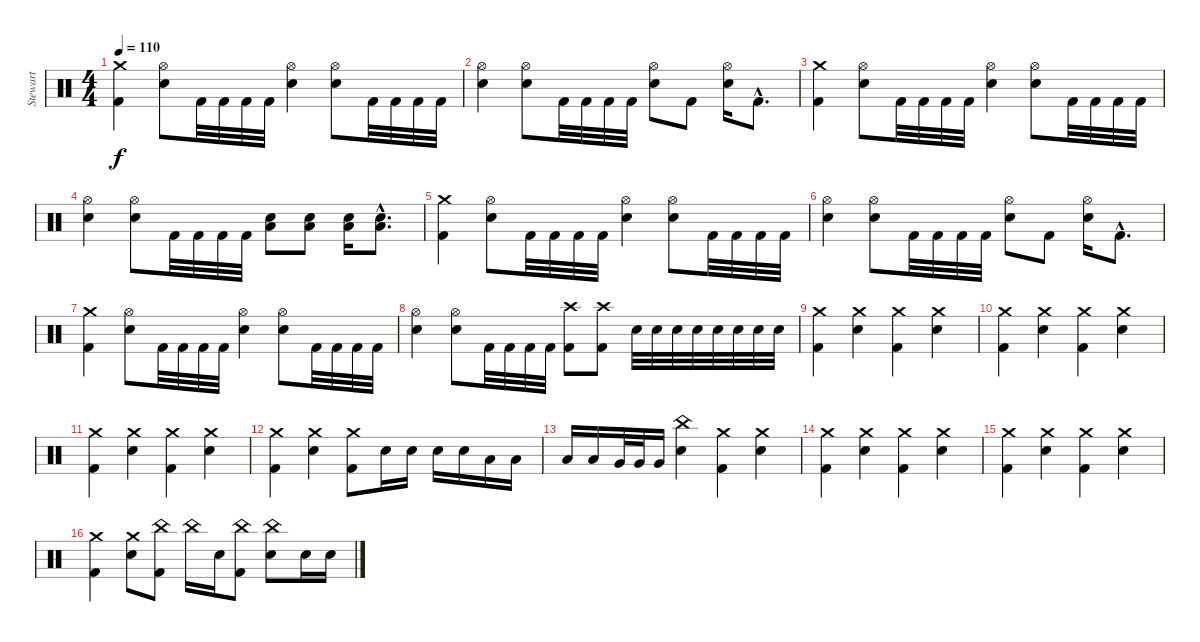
\track ("Stewart" "Stewart") {instrument percussion}
\staff {score}
\articulation defaults
\ts (4 4)
\tempo 110
\clef neutral
\ks c
("Crash medium (hit)" "Kick (hit) 2").4{dy f} ("Hi-Hat (open)" "Electric Snare (hit)").8 "Kick (hit) 2".32 "Kick (hit) 2".32 "Kick (hit) 2".32 "Kick (hit) 2".32 ("Hi-Hat (open)" "Electric Snare (hit)").4 ("Hi-Hat (open)" "Electric Snare (hit)").8 "Kick (hit) 2".32 "Kick (hit) 2".32 "Kick (hit) 2".32 "Kick (hit) 2".32 |
("Hi-Hat (open)" "Electric Snare (hit)").4 ("Hi-Hat (open)" "Electric Snare (hit)").8 "Kick (hit) 2".32 "Kick (hit) 2".32 "Kick (hit) 2".32 "Kick (hit) 2".32 ("Hi-Hat (open)" "Electric Snare (hit)").8 "Kick (hit) 2".8 ("Hi-Hat (open)" "Electric Snare (hit)").16 "Kick (hit) 2"{hac}.8{d} |
("Crash medium (hit)" "Kick (hit) 2").4 ("Hi-Hat (open)" "Electric Snare (hit)").8 "Kick (hit) 2".32 "Kick (hit) 2".32 "Kick (hit) 2".32 "Kick (hit) 2".32 ("Hi-Hat (open)" "Electric Snare (hit)").4 ("Hi-Hat (open)" "Electric Snare (hit)").8 "Kick (hit) 2".32 "Kick (hit) 2".32 "Kick (hit) 2".32 "Kick (hit) 2".32 |
("Hi-Hat (open)" "Electric Snare (hit)").4 ("Hi-Hat (open)" "Electric Snare (hit)").8 "Kick (hit) 2".32 "Kick (hit) 2".32 "Kick (hit) 2".32 "Kick (hit) 2".32 ("Snare (hit) 2" "Low Tom (hit)").8 ("Snare (hit) 2" "Low Tom (hit)").8 ("Snare (hit) 2" "Low Tom (hit)").16 ("Snare (hit) 2"{hac} "Low Tom (hit)"{hac}).8{d} |
("Crash medium (hit)" "Kick (hit) 2").4 ("Hi-Hat (open)" "Electric Snare (hit)").8 "Kick (hit) 2".32 "Kick (hit) 2".32 "Kick (hit) 2".32 "Kick (hit) 2".32 ("Hi-Hat (open)" "Electric Snare (hit)").4 ("Hi-Hat (open)" "Electric Snare (hit)").8 "Kick (hit) 2".32 "Kick (hit) 2".32 "Kick (hit) 2".32 "Kick (hit) 2".32 |
("Hi-Hat (open)" "Electric Snare (hit)").4 ("Hi-Hat (open)" "Electric Snare (hit)").8 "Kick (hit) 2".32 "Kick (hit) 2".32 "Kick (hit) 2".32 "Kick (hit) 2".32 ("Hi-Hat (open)" "Electric Snare (hit)").8 "Kick (hit) 2".8 ("Hi-Hat (open)" "Electric Snare (hit)").16 "Kick (hit) 2"{hac}.8{d} |
("Crash medium (hit)" "Kick (hit) 2").4 ("Hi-Hat (open)" "Electric Snare (hit)").8 "Kick (hit) 2".32 "Kick (hit) 2".32 "Kick (hit) 2".32 "Kick (hit) 2".32 ("Hi-Hat (open)" "Electric Snare (hit)").4 ("Hi-Hat (open)" "Electric Snare (hit)").8 "Kick (hit) 2".32 "Kick (hit) 2".32 "Kick (hit) 2".32 "Kick (hit) 2".32 |
("Hi-Hat (open)" "Electric Snare (hit)").4 ("Hi-Hat (open)" "Electric Snare (hit)").8 "Kick (hit) 2".32 "Kick (hit) 2".32 "Kick (hit) 2".32 "Kick (hit) 2".32 ("Crash high (hit)" "Kick (hit) 2").8 ("Crash high (hit)" "Kick (hit) 2").8 "Electric Snare (hit)".32 "Electric Snare (hit)".32 "Electric Snare (hit)".32 "Electric Snare (hit)".32 "Electric Snare (hit)".32 "Electric Snare (hit)".32 "Electric Snare (hit)".32 "Electric Snare (hit)".32 |
("Crash medium (hit)" "Kick (hit) 2").4 ("Crash medium (hit)" "Electric Snare (hit)").4 ("Crash medium (hit)" "Kick (hit) 2").4 ("Crash medium (hit)" "Electric Snare (hit)").4 |
("Crash medium (hit)" "Kick (hit) 2").4 ("Crash medium (hit)" "Electric Snare (hit)").4 ("Crash medium (hit)" "Kick (hit) 2").4 ("Crash medium (hit)" "Electric Snare (hit)").4 |
("Crash medium (hit)" "Kick (hit) 2").4 ("Crash medium (hit)" "Electric Snare (hit)").4 ("Crash medium (hit)" "Kick (hit) 2").4 ("Crash medium (hit)" "Electric Snare (hit)").4 |
("Crash medium (hit)" "Kick (hit) 2").4 ("Crash medium (hit)" "Electric Snare (hit)").4 ("Crash medium (hit)" "Kick (hit) 2").8 "Electric Snare (hit)".16 "Electric Snare (hit)".16 "Electric Snare (hit)".16 "Electric Snare (hit)".16 "Low Tom (hit)".16 "Low Tom (hit)".16 |
"Low Tom (hit)".16 "Low Tom (hit)".16 "Very Low Tom (hit)".32 "Very Low Tom (hit)".32 "Very Low Tom (hit)".16 ("China (hit)" "Electric Snare (hit)").4 ("Crash medium (hit)" "Kick (hit) 2").4 ("Crash medium (hit)" "Electric Snare (hit)").4 |
("Crash medium (hit)" "Kick (hit) 2").4 ("Crash medium (hit)" "Electric Snare (hit)").4 ("Crash medium (hit)" "Kick (hit) 2").4 ("Crash medium (hit)" "Electric Snare (hit)").4 |
("Crash medium (hit)" "Kick (hit) 2").4 ("Crash medium (hit)" "Electric Snare (hit)").4 ("Crash medium (hit)" "Kick (hit) 2").4 ("Crash medium (hit)" "Electric Snare (hit)").4 |
("Crash medium (hit)" "Kick (hit) 2").4 ("Crash medium (hit)" "Electric Snare (hit)").8 ("China (hit)" "Kick (hit) 2").8 "China (hit)".16 "Electric Snare (hit)".16 ("China (hit)" "Kick (hit) 2").8 ("China (hit)" "Electric Snare (hit)").8 "Electric Snare (hit)".16 "Electric Snare (hit)".16
